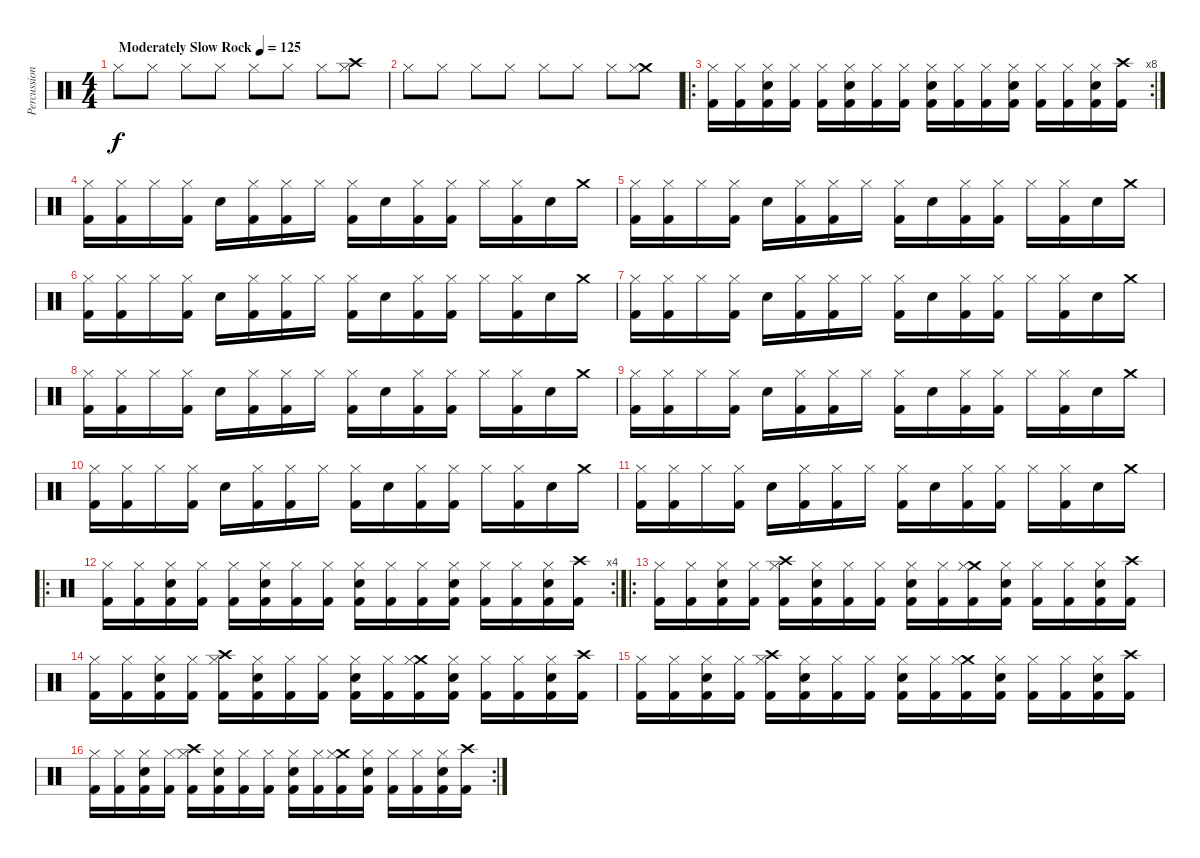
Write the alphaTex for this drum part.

\track ("Percussion" "Percussion") {instrument percussion}
\staff {score}
\articulation defaults
\ts (4 4)
\tempo (125 "Moderately Slow Rock")
\clef neutral
\ks c "Hi-Hat (closed)".8{dy f} "Hi-Hat (closed)".8 "Hi-Hat (closed)".8 "Hi-Hat (closed)".8 "Hi-Hat (closed)".8 "Hi-Hat (closed)".8 "Hi-Hat (closed)".8
("Crash high (hit)" "Hi-Hat (closed)").8 |
"Hi-Hat (closed)".8 "Hi-Hat (closed)".8 "Hi-Hat (closed)".8 "Hi-Hat (closed)".8 "Hi-Hat (closed)".8 "Hi-Hat (closed)".8 "Hi-Hat (closed)".8 ("Crash medium (hit)" "Hi-Hat (closed)").8 |
\ro
\rc 8
("Hi-Hat (closed)" "Kick (hit) 2").16 ("Hi-Hat (closed)" "Kick (hit) 2").16 ("Electric Snare (hit)" "Hi-Hat (closed)" "Kick (hit) 2").16 ("Hi-Hat (closed)" "Kick (hit) 2").16 ("Hi-Hat (closed)" "Kick (hit) 2").16 ("Electric Snare (hit)" "Hi-Hat (closed)" "Kick (hit) 2").16 ("Hi-Hat (closed)" "Kick (hit) 2").16 ("Hi-Hat (closed)" "Kick (hit) 2").16 ("Electric Snare (hit)" "Hi-Hat (closed)" "Kick (hit) 2").16 ("Hi-Hat (closed)" "Kick (hit) 2").16 ("Hi-Hat (closed)" "Kick (hit) 2").16 ("Electric Snare (hit)" "Hi-Hat (closed)" "Kick (hit) 2").16 ("Hi-Hat (closed)" "Kick (hit) 2").16 ("Hi-Hat (closed)" "Kick (hit) 2").16 ("Electric Snare (hit)" "Hi-Hat (closed)" "Kick (hit) 2").16 ("Crash high (hit)" "Kick (hit) 2").16 |
("Kick (hit) 2" "Hi-Hat (closed)").16 ("Kick (hit) 2" "Hi-Hat (closed)").16 "Hi-Hat (closed)".16 ("Kick (hit) 2" "Hi-Hat (closed)").16 "Electric Snare (hit)".16 ("Kick (hit) 2" "Hi-Hat (closed)").16 ("Kick (hit) 2" "Hi-Hat (closed)").16 "Hi-Hat (closed)".16 ("Kick (hit) 2" "Hi-Hat (closed)").16 "Electric Snare (hit)".16 ("Kick (hit) 2" "Hi-Hat (closed)").16 ("Kick (hit) 2" "Hi-Hat (closed)").16 "Hi-Hat (closed)".16 ("Kick (hit) 2" "Hi-Hat (closed)").16 "Electric Snare (hit)".16 "Crash medium (hit)".16 |
("Kick (hit) 2" "Hi-Hat (closed)").16 ("Kick (hit) 2" "Hi-Hat (closed)").16 "Hi-Hat (closed)".16 ("Kick (hit) 2" "Hi-Hat (closed)").16 "Electric Snare (hit)".16 ("Kick (hit) 2" "Hi-Hat (closed)").16 ("Kick (hit) 2" "Hi-Hat (closed)").16 "Hi-Hat (closed)".16 ("Kick (hit) 2" "Hi-Hat (closed)").16 "Electric Snare (hit)".16 ("Kick (hit) 2" "Hi-Hat (closed)").16 ("Kick (hit) 2" "Hi-Hat (closed)").16 "Hi-Hat (closed)".16 ("Kick (hit) 2" "Hi-Hat (closed)").16 "Electric Snare (hit)".16 "Crash medium (hit)".16 |
("Kick (hit) 2" "Hi-Hat (closed)").16 ("Kick (hit) 2" "Hi-Hat (closed)").16 "Hi-Hat (closed)".16 ("Kick (hit) 2" "Hi-Hat (closed)").16 "Electric Snare (hit)".16 ("Kick (hit) 2" "Hi-Hat (closed)").16 ("Kick (hit) 2" "Hi-Hat (closed)").16 "Hi-Hat (closed)".16 ("Kick (hit) 2" "Hi-Hat (closed)").16 "Electric Snare (hit)".16 ("Kick (hit) 2" "Hi-Hat (closed)").16 ("Kick (hit) 2" "Hi-Hat (closed)").16 "Hi-Hat (closed)".16 ("Kick (hit) 2" "Hi-Hat (closed)").16 "Electric Snare (hit)".16 "Crash medium (hit)".16 |
("Kick (hit) 2" "Hi-Hat (closed)").16 ("Kick (hit) 2" "Hi-Hat (closed)").16 "Hi-Hat (closed)".16 ("Kick (hit) 2" "Hi-Hat (closed)").16 "Electric Snare (hit)".16 ("Kick (hit) 2" "Hi-Hat (closed)").16 ("Kick (hit) 2" "Hi-Hat (closed)").16 "Hi-Hat (closed)".16 ("Kick (hit) 2" "Hi-Hat (closed)").16 "Electric Snare (hit)".16 ("Kick (hit) 2" "Hi-Hat (closed)").16 ("Kick (hit) 2" "Hi-Hat (closed)").16 "Hi-Hat (closed)".16 ("Kick (hit) 2" "Hi-Hat (closed)").16 "Electric Snare (hit)".16 "Crash medium (hit)".16 |
("Kick (hit) 2" "Hi-Hat (closed)").16 ("Kick (hit) 2" "Hi-Hat (closed)").16 "Hi-Hat (closed)".16 ("Kick (hit) 2" "Hi-Hat (closed)").16 "Electric Snare (hit)".16 ("Kick (hit) 2" "Hi-Hat (closed)").16 ("Kick (hit) 2" "Hi-Hat (closed)").16 "Hi-Hat (closed)".16 ("Kick (hit) 2" "Hi-Hat (closed)").16 "Electric Snare (hit)".16 ("Kick (hit) 2" "Hi-Hat (closed)").16 ("Kick (hit) 2" "Hi-Hat (closed)").16 "Hi-Hat (closed)".16 ("Kick (hit) 2" "Hi-Hat (closed)").16 "Electric Snare (hit)".16 "Crash medium (hit)".16 |
("Kick (hit) 2" "Hi-Hat (closed)").16 ("Kick (hit) 2" "Hi-Hat (closed)").16 "Hi-Hat (closed)".16 ("Kick (hit) 2" "Hi-Hat (closed)").16 "Electric Snare (hit)".16 ("Kick (hit) 2" "Hi-Hat (closed)").16 ("Kick (hit) 2" "Hi-Hat (closed)").16 "Hi-Hat (closed)".16 ("Kick (hit) 2" "Hi-Hat (closed)").16 "Electric Snare (hit)".16 ("Kick (hit) 2" "Hi-Hat (closed)").16 ("Kick (hit) 2" "Hi-Hat (closed)").16 "Hi-Hat (closed)".16 ("Kick (hit) 2" "Hi-Hat (closed)").16 "Electric Snare (hit)".16 "Crash medium (hit)".16 |
("Kick (hit) 2" "Hi-Hat (closed)").16 ("Kick (hit) 2" "Hi-Hat (closed)").16 "Hi-Hat (closed)".16 ("Kick (hit) 2" "Hi-Hat (closed)").16 "Electric Snare (hit)".16 ("Kick (hit) 2" "Hi-Hat (closed)").16 ("Kick (hit) 2" "Hi-Hat (closed)").16 "Hi-Hat (closed)".16 ("Kick (hit) 2" "Hi-Hat (closed)").16 "Electric Snare (hit)".16 ("Kick (hit) 2" "Hi-Hat (closed)").16 ("Kick (hit) 2" "Hi-Hat (closed)").16 "Hi-Hat (closed)".16 ("Kick (hit) 2" "Hi-Hat (closed)").16 "Electric Snare (hit)".16 "Crash medium (hit)".16 |
("Kick (hit) 2" "Hi-Hat (closed)").16 ("Kick (hit) 2" "Hi-Hat (closed)").16 "Hi-Hat (closed)".16 ("Kick (hit) 2" "Hi-Hat (closed)").16 "Electric Snare (hit)".16 ("Kick (hit) 2" "Hi-Hat (closed)").16 ("Kick (hit) 2" "Hi-Hat (closed)").16 "Hi-Hat (closed)".16 ("Kick (hit) 2" "Hi-Hat (closed)").16 "Electric Snare (hit)".16 ("Kick (hit) 2" "Hi-Hat (closed)").16 ("Kick (hit) 2" "Hi-Hat (closed)").16 "Hi-Hat (closed)".16 ("Kick (hit) 2" "Hi-Hat (closed)").16 "Electric Snare (hit)".16 "Crash medium (hit)".16 |
\ro
\rc 4
("Hi-Hat (closed)" "Kick (hit) 2").16 ("Hi-Hat (closed)" "Kick (hit) 2").16 ("Electric Snare (hit)" "Hi-Hat (closed)" "Kick (hit) 2").16 ("Hi-Hat (closed)" "Kick (hit) 2").16 ("Hi-Hat (closed)" "Kick (hit) 2").16 ("Electric Snare (hit)" "Hi-Hat (closed)" "Kick (hit) 2").16 ("Hi-Hat (closed)" "Kick (hit) 2").16 ("Hi-Hat (closed)" "Kick (hit) 2").16 ("Electric Snare (hit)" "Hi-Hat (closed)" "Kick (hit) 2").16 ("Hi-Hat (closed)" "Kick (hit) 2").16 ("Hi-Hat (closed)" "Kick (hit) 2").16 ("Electric Snare (hit)" "Hi-Hat (closed)" "Kick (hit) 2").16 ("Hi-Hat (closed)" "Kick (hit) 2").16 ("Hi-Hat (closed)" "Kick (hit) 2").16 ("Electric Snare (hit)" "Hi-Hat (closed)" "Kick (hit) 2").16 ("Crash high (hit)" "Kick (hit) 2").16 |
\ro
("Hi-Hat (closed)" "Kick (hit) 2").16 ("Hi-Hat (closed)" "Kick (hit) 2").16 ("Electric Snare (hit)" "Hi-Hat (closed)" "Kick (hit) 2").16 ("Hi-Hat (closed)" "Kick (hit) 2").16 ("Crash high (hit)" "Hi-Hat (closed)" "Kick (hit) 2").16 ("Electric Snare (hit)" "Hi-Hat (closed)" "Kick (hit) 2").16 ("Hi-Hat (closed)" "Kick (hit) 2").16 ("Hi-Hat (closed)" "Kick (hit) 2").16 ("Electric Snare (hit)" "Hi-Hat (closed)" "Kick (hit) 2").16 ("Hi-Hat (closed)" "Kick (hit) 2").16 ("Crash medium (hit)" "Hi-Hat (closed)" "Kick (hit) 2").16 ("Electric Snare (hit)" "Hi-Hat (closed)" "Kick (hit) 2").16 ("Hi-Hat (closed)" "Kick (hit) 2").16 ("Hi-Hat (closed)" "Kick (hit) 2").16 ("Electric Snare (hit)" "Hi-Hat (closed)" "Kick (hit) 2").16 ("Crash high (hit)" "Kick (hit) 2").16 |
("Hi-Hat (closed)" "Kick (hit) 2").16 ("Hi-Hat (closed)" "Kick (hit) 2").16 ("Electric Snare (hit)" "Hi-Hat (closed)" "Kick (hit) 2").16 ("Hi-Hat (closed)" "Kick (hit) 2").16 ("Crash high (hit)" "Hi-Hat (closed)" "Kick (hit) 2").16 ("Electric Snare (hit)" "Hi-Hat (closed)" "Kick (hit) 2").16 ("Hi-Hat (closed)" "Kick (hit) 2").16 ("Hi-Hat (closed)" "Kick (hit) 2").16 ("Electric Snare (hit)" "Hi-Hat (closed)" "Kick (hit) 2").16 ("Hi-Hat (closed)" "Kick (hit) 2").16 ("Crash medium (hit)" "Hi-Hat (closed)" "Kick (hit) 2").16 ("Electric Snare (hit)" "Hi-Hat (closed)" "Kick (hit) 2").16 ("Hi-Hat (closed)" "Kick (hit) 2").16 ("Hi-Hat (closed)" "Kick (hit) 2").16 ("Electric Snare (hit)" "Hi-Hat (closed)" "Kick (hit) 2").16 ("Crash high (hit)" "Kick (hit) 2").16 |
("Hi-Hat (closed)" "Kick (hit) 2").16 ("Hi-Hat (closed)" "Kick (hit) 2").16 ("Electric Snare (hit)" "Hi-Hat (closed)" "Kick (hit) 2").16 ("Hi-Hat (closed)" "Kick (hit) 2").16 ("Crash high (hit)" "Hi-Hat (closed)" "Kick (hit) 2").16 ("Electric Snare (hit)" "Hi-Hat (closed)" "Kick (hit) 2").16 ("Hi-Hat (closed)" "Kick (hit) 2").16 ("Hi-Hat (closed)" "Kick (hit) 2").16 ("Electric Snare (hit)" "Hi-Hat (closed)" "Kick (hit) 2").16 ("Hi-Hat (closed)" "Kick (hit) 2").16 ("Crash medium (hit)" "Hi-Hat (closed)" "Kick (hit) 2").16 ("Electric Snare (hit)" "Hi-Hat (closed)" "Kick (hit) 2").16 ("Hi-Hat (closed)" "Kick (hit) 2").16 ("Hi-Hat (closed)" "Kick (hit) 2").16 ("Electric Snare (hit)" "Hi-Hat (closed)" "Kick (hit) 2").16 ("Crash high (hit)" "Kick (hit) 2").16 |
\rc 2
("Hi-Hat (closed)" "Kick (hit) 2").16 ("Hi-Hat (closed)" "Kick (hit) 2").16 ("Electric Snare (hit)" "Hi-Hat (closed)" "Kick (hit) 2").16 ("Hi-Hat (closed)" "Kick (hit) 2").16 ("Crash high (hit)" "Hi-Hat (closed)" "Kick (hit) 2").16 ("Electric Snare (hit)" "Hi-Hat (closed)" "Kick (hit) 2").16 ("Hi-Hat (closed)" "Kick (hit) 2").16 ("Hi-Hat (closed)" "Kick (hit) 2").16 ("Electric Snare (hit)" "Hi-Hat (closed)" "Kick (hit) 2").16 ("Hi-Hat (closed)" "Kick (hit) 2").16 ("Crash medium (hit)" "Hi-Hat (closed)" "Kick (hit) 2").16 ("Electric Snare (hit)" "Hi-Hat (closed)" "Kick (hit) 2").16 ("Hi-Hat (closed)" "Kick (hit) 2").16 ("Hi-Hat (closed)" "Kick (hit) 2").16 ("Electric Snare (hit)" "Hi-Hat (closed)" "Kick (hit) 2").16 ("Crash high (hit)" "Kick (hit) 2").16
